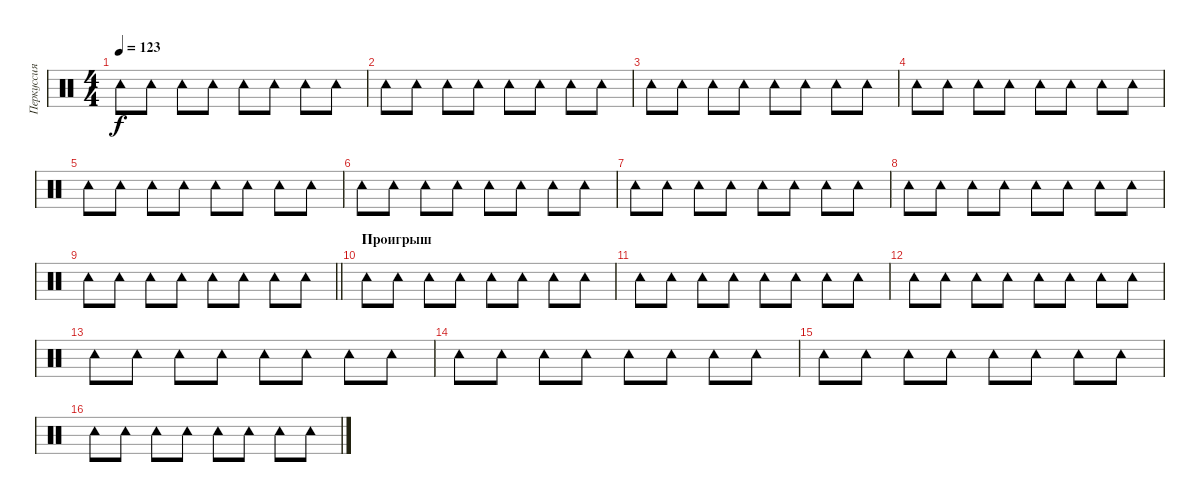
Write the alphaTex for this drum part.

\track ("Перкуссия 1" "Перкуссия ") {instrument percussion}
\staff {score}
\articulation defaults
\ts (4 4)
\tempo 123
\clef neutral
\ks c "Tambourine (hit)".8{dy f} "Tambourine (hit)".8 "Tambourine (hit)".8 "Tambourine (hit)".8 "Tambourine (hit)".8 "Tambourine (hit)".8 "Tambourine (hit)".8 "Tambourine (hit)".8
|
"Tambourine (hit)".8 "Tambourine (hit)".8 "Tambourine (hit)".8 "Tambourine (hit)".8 "Tambourine (hit)".8 "Tambourine (hit)".8 "Tambourine (hit)".8 "Tambourine (hit)".8 |
"Tambourine (hit)".8 "Tambourine (hit)".8 "Tambourine (hit)".8 "Tambourine (hit)".8 "Tambourine (hit)".8 "Tambourine (hit)".8 "Tambourine (hit)".8 "Tambourine (hit)".8 |
"Tambourine (hit)".8 "Tambourine (hit)".8 "Tambourine (hit)".8 "Tambourine (hit)".8 "Tambourine (hit)".8 "Tambourine (hit)".8 "Tambourine (hit)".8 "Tambourine (hit)".8 |
"Tambourine (hit)".8 "Tambourine (hit)".8 "Tambourine (hit)".8 "Tambourine (hit)".8 "Tambourine (hit)".8 "Tambourine (hit)".8 "Tambourine (hit)".8 "Tambourine (hit)".8 |
"Tambourine (hit)".8 "Tambourine (hit)".8 "Tambourine (hit)".8 "Tambourine (hit)".8 "Tambourine (hit)".8 "Tambourine (hit)".8 "Tambourine (hit)".8 "Tambourine (hit)".8 |
"Tambourine (hit)".8 "Tambourine (hit)".8 "Tambourine (hit)".8 "Tambourine (hit)".8 "Tambourine (hit)".8 "Tambourine (hit)".8 "Tambourine (hit)".8 "Tambourine (hit)".8 |
"Tambourine (hit)".8 "Tambourine (hit)".8 "Tambourine (hit)".8 "Tambourine (hit)".8 "Tambourine (hit)".8 "Tambourine (hit)".8 "Tambourine (hit)".8 "Tambourine (hit)".8 |
\barLineRight lightlight "Tambourine (hit)".8 "Tambourine (hit)".8 "Tambourine (hit)".8 "Tambourine (hit)".8 "Tambourine (hit)".8 "Tambourine (hit)".8 "Tambourine (hit)".8 "Tambourine (hit)".8
|
\section ("" "Проигрыш")
"Tambourine (hit)".8 "Tambourine (hit)".8 "Tambourine (hit)".8 "Tambourine (hit)".8 "Tambourine (hit)".8 "Tambourine (hit)".8 "Tambourine (hit)".8 "Tambourine (hit)".8 |
"Tambourine (hit)".8 "Tambourine (hit)".8 "Tambourine (hit)".8 "Tambourine (hit)".8 "Tambourine (hit)".8 "Tambourine (hit)".8 "Tambourine (hit)".8 "Tambourine (hit)".8 |
"Tambourine (hit)".8 "Tambourine (hit)".8 "Tambourine (hit)".8 "Tambourine (hit)".8 "Tambourine (hit)".8 "Tambourine (hit)".8 "Tambourine (hit)".8 "Tambourine (hit)".8 |
"Tambourine (hit)".8 "Tambourine (hit)".8 "Tambourine (hit)".8 "Tambourine (hit)".8 "Tambourine (hit)".8 "Tambourine (hit)".8 "Tambourine (hit)".8 "Tambourine (hit)".8 |
"Tambourine (hit)".8 "Tambourine (hit)".8 "Tambourine (hit)".8 "Tambourine (hit)".8 "Tambourine (hit)".8 "Tambourine (hit)".8 "Tambourine (hit)".8 "Tambourine (hit)".8 |
"Tambourine (hit)".8 "Tambourine (hit)".8 "Tambourine (hit)".8 "Tambourine (hit)".8 "Tambourine (hit)".8 "Tambourine (hit)".8 "Tambourine (hit)".8 "Tambourine (hit)".8 |
"Tambourine (hit)".8 "Tambourine (hit)".8 "Tambourine (hit)".8 "Tambourine (hit)".8 "Tambourine (hit)".8 "Tambourine (hit)".8 "Tambourine (hit)".8 "Tambourine (hit)".8
